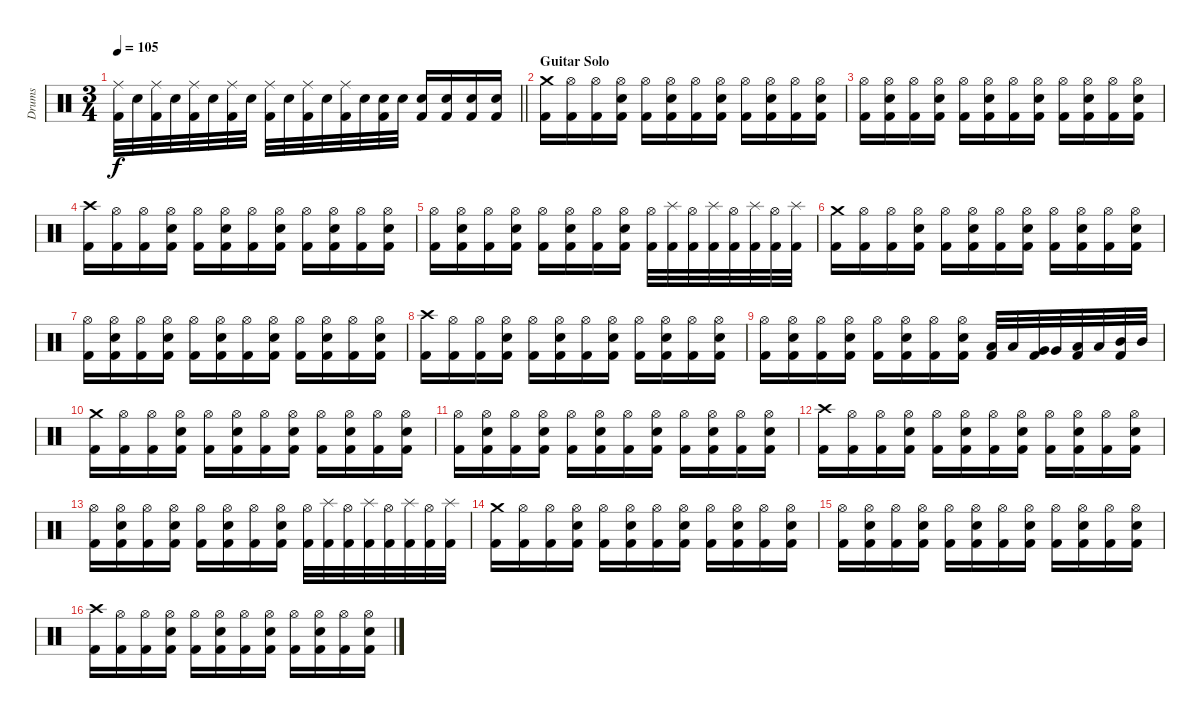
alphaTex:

\track ("Drums" "Drums") {instrument percussion}
\staff {score}
\articulation defaults
\ts (3 4)
\tempo 105
\clef neutral
\barLineRight lightlight
\ks c
("Kick (hit) 2" "Ride (middle)").32{dy f} "Electric Snare (hit)".32 ("Kick (hit) 2" "Ride (middle)").32 "Electric Snare (hit)".32 ("Kick (hit) 2" "Ride (middle)").32 "Electric Snare (hit)".32 ("Kick (hit) 2" "Ride (middle)").32 "Electric Snare (hit)".32 ("Kick (hit) 2" "Ride (middle)").32 "Electric Snare (hit)".32 ("Kick (hit) 2" "Ride (middle)").32 "Electric Snare (hit)".32 ("Kick (hit) 2" "Ride (middle)").32 "Electric Snare (hit)".32 ("Kick (hit) 2" "Electric Snare (hit)").32 "Electric Snare (hit)".32 ("Kick (hit) 2" "Electric Snare (hit)").16 ("Kick (hit) 2" "Electric Snare (hit)").16 ("Kick (hit) 2" "Electric Snare (hit)").16 ("Kick (hit) 2" "Electric Snare (hit)").16 |
\section ("" "Guitar Solo")
("Kick (hit) 2" "Crash medium (hit)").16 ("Kick (hit) 2" "Hi-Hat (open)").16 ("Kick (hit) 2" "Hi-Hat (open)").16 ("Kick (hit) 2" "Electric Snare (hit)" "Hi-Hat (open)").16 ("Kick (hit) 2" "Hi-Hat (open)").16 ("Kick (hit) 2" "Electric Snare (hit)" "Hi-Hat (open)").16 ("Kick (hit) 2" "Hi-Hat (open)").16 ("Kick (hit) 2" "Electric Snare (hit)" "Hi-Hat (open)").16 ("Kick (hit) 2" "Hi-Hat (open)").16 ("Kick (hit) 2" "Electric Snare (hit)" "Hi-Hat (open)").16 ("Kick (hit) 2" "Hi-Hat (open)").16 ("Kick (hit) 2" "Electric Snare (hit)" "Hi-Hat (open)").16 |
("Kick (hit) 2" "Hi-Hat (open)").16 ("Kick (hit) 2" "Electric Snare (hit)" "Hi-Hat (open)").16 ("Kick (hit) 2" "Hi-Hat (open)").16 ("Kick (hit) 2" "Electric Snare (hit)" "Hi-Hat (open)").16 ("Kick (hit) 2" "Hi-Hat (open)").16 ("Kick (hit) 2" "Electric Snare (hit)" "Hi-Hat (open)").16 ("Kick (hit) 2" "Hi-Hat (open)").16 ("Kick (hit) 2" "Electric Snare (hit)" "Hi-Hat (open)").16 ("Kick (hit) 2" "Hi-Hat (open)").16 ("Kick (hit) 2" "Electric Snare (hit)" "Hi-Hat (open)").16 ("Kick (hit) 2" "Hi-Hat (open)").16 ("Kick (hit) 2" "Electric Snare (hit)" "Hi-Hat (open)").16 |
("Kick (hit) 2" "Crash high (hit)").16 ("Kick (hit) 2" "Hi-Hat (open)").16 ("Kick (hit) 2" "Hi-Hat (open)").16 ("Kick (hit) 2" "Electric Snare (hit)" "Hi-Hat (open)").16 ("Kick (hit) 2" "Hi-Hat (open)").16 ("Kick (hit) 2" "Electric Snare (hit)" "Hi-Hat (open)").16 ("Kick (hit) 2" "Hi-Hat (open)").16 ("Kick (hit) 2" "Electric Snare (hit)" "Hi-Hat (open)").16 ("Kick (hit) 2" "Hi-Hat (open)").16 ("Kick (hit) 2" "Electric Snare (hit)" "Hi-Hat (open)").16 ("Kick (hit) 2" "Hi-Hat (open)").16 ("Kick (hit) 2" "Electric Snare (hit)" "Hi-Hat (open)").16 |
("Kick (hit) 2" "Hi-Hat (open)").16 ("Kick (hit) 2" "Electric Snare (hit)" "Hi-Hat (open)").16 ("Kick (hit) 2" "Hi-Hat (open)").16 ("Kick (hit) 2" "Electric Snare (hit)" "Hi-Hat (open)").16 ("Kick (hit) 2" "Hi-Hat (open)").16 ("Kick (hit) 2" "Electric Snare (hit)" "Hi-Hat (open)").16 ("Kick (hit) 2" "Hi-Hat (open)").16 ("Kick (hit) 2" "Electric Snare (hit)" "Hi-Hat (open)").16 ("Kick (hit) 2" "Hi-Hat (open)").32 ("Kick (hit) 2" "Splash (hit)").32 ("Kick (hit) 2" "Hi-Hat (open)").32 ("Kick (hit) 2" "Splash (hit)").32 ("Kick (hit) 2" "Hi-Hat (open)").32 ("Kick (hit) 2" "Splash (hit)").32 ("Kick (hit) 2" "Hi-Hat (open)").32 ("Kick (hit) 2" "Splash (hit)").32 |
("Kick (hit) 2" "Crash medium (hit)").16 ("Kick (hit) 2" "Hi-Hat (open)").16 ("Kick (hit) 2" "Hi-Hat (open)").16 ("Kick (hit) 2" "Electric Snare (hit)" "Hi-Hat (open)").16 ("Kick (hit) 2" "Hi-Hat (open)").16 ("Kick (hit) 2" "Electric Snare (hit)" "Hi-Hat (open)").16 ("Kick (hit) 2" "Hi-Hat (open)").16 ("Kick (hit) 2" "Electric Snare (hit)" "Hi-Hat (open)").16 ("Kick (hit) 2" "Hi-Hat (open)").16 ("Kick (hit) 2" "Electric Snare (hit)" "Hi-Hat (open)").16 ("Kick (hit) 2" "Hi-Hat (open)").16 ("Kick (hit) 2" "Electric Snare (hit)" "Hi-Hat (open)").16 |
("Kick (hit) 2" "Hi-Hat (open)").16 ("Kick (hit) 2" "Electric Snare (hit)" "Hi-Hat (open)").16 ("Kick (hit) 2" "Hi-Hat (open)").16 ("Kick (hit) 2" "Electric Snare (hit)" "Hi-Hat (open)").16 ("Kick (hit) 2" "Hi-Hat (open)").16 ("Kick (hit) 2" "Electric Snare (hit)" "Hi-Hat (open)").16 ("Kick (hit) 2" "Hi-Hat (open)").16 ("Kick (hit) 2" "Electric Snare (hit)" "Hi-Hat (open)").16 ("Kick (hit) 2" "Hi-Hat (open)").16 ("Kick (hit) 2" "Electric Snare (hit)" "Hi-Hat (open)").16 ("Kick (hit) 2" "Hi-Hat (open)").16 ("Kick (hit) 2" "Electric Snare (hit)" "Hi-Hat (open)").16 |
("Kick (hit) 2" "Crash high (hit)").16 ("Kick (hit) 2" "Hi-Hat (open)").16 ("Kick (hit) 2" "Hi-Hat (open)").16 ("Kick (hit) 2" "Electric Snare (hit)" "Hi-Hat (open)").16 ("Kick (hit) 2" "Hi-Hat (open)").16 ("Kick (hit) 2" "Electric Snare (hit)" "Hi-Hat (open)").16 ("Kick (hit) 2" "Hi-Hat (open)").16 ("Kick (hit) 2" "Electric Snare (hit)" "Hi-Hat (open)").16 ("Kick (hit) 2" "Hi-Hat (open)").16 ("Kick (hit) 2" "Electric Snare (hit)" "Hi-Hat (open)").16 ("Kick (hit) 2" "Hi-Hat (open)").16 ("Kick (hit) 2" "Electric Snare (hit)" "Hi-Hat (open)").16 |
("Kick (hit) 2" "Hi-Hat (open)").16 ("Kick (hit) 2" "Electric Snare (hit)" "Hi-Hat (open)").16 ("Kick (hit) 2" "Hi-Hat (open)").16 ("Kick (hit) 2" "Electric Snare (hit)" "Hi-Hat (open)").16 ("Kick (hit) 2" "Hi-Hat (open)").16 ("Kick (hit) 2" "Electric Snare (hit)" "Hi-Hat (open)").16 ("Kick (hit) 2" "Hi-Hat (open)").16 ("Kick (hit) 2" "Electric Snare (hit)" "Hi-Hat (open)").16 ("Kick (hit) 2" "Low Tom (hit)").32 "Low Tom (hit)".32 ("Kick (hit) 2" "Very Low Tom (hit)").32 "Very Low Tom (hit)".32 ("Kick (hit) 2" "Low Tom (hit)").32 "Low Tom (hit)".32 ("Kick (hit) 2" "Mid Tom (hit)").32 "Mid Tom (hit)".32 |
("Kick (hit) 2" "Crash medium (hit)").16 ("Kick (hit) 2" "Hi-Hat (open)").16 ("Kick (hit) 2" "Hi-Hat (open)").16 ("Kick (hit) 2" "Electric Snare (hit)" "Hi-Hat (open)").16 ("Kick (hit) 2" "Hi-Hat (open)").16 ("Kick (hit) 2" "Electric Snare (hit)" "Hi-Hat (open)").16 ("Kick (hit) 2" "Hi-Hat (open)").16 ("Kick (hit) 2" "Electric Snare (hit)" "Hi-Hat (open)").16 ("Kick (hit) 2" "Hi-Hat (open)").16 ("Kick (hit) 2" "Electric Snare (hit)" "Hi-Hat (open)").16 ("Kick (hit) 2" "Hi-Hat (open)").16 ("Kick (hit) 2" "Electric Snare (hit)" "Hi-Hat (open)").16 |
("Kick (hit) 2" "Hi-Hat (open)").16 ("Kick (hit) 2" "Electric Snare (hit)" "Hi-Hat (open)").16 ("Kick (hit) 2" "Hi-Hat (open)").16 ("Kick (hit) 2" "Electric Snare (hit)" "Hi-Hat (open)").16 ("Kick (hit) 2" "Hi-Hat (open)").16 ("Kick (hit) 2" "Electric Snare (hit)" "Hi-Hat (open)").16 ("Kick (hit) 2" "Hi-Hat (open)").16 ("Kick (hit) 2" "Electric Snare (hit)" "Hi-Hat (open)").16 ("Kick (hit) 2" "Hi-Hat (open)").16 ("Kick (hit) 2" "Electric Snare (hit)" "Hi-Hat (open)").16 ("Kick (hit) 2" "Hi-Hat (open)").16 ("Kick (hit) 2" "Electric Snare (hit)" "Hi-Hat (open)").16 |
("Kick (hit) 2" "Crash high (hit)").16 ("Kick (hit) 2" "Hi-Hat (open)").16 ("Kick (hit) 2" "Hi-Hat (open)").16 ("Kick (hit) 2" "Electric Snare (hit)" "Hi-Hat (open)").16 ("Kick (hit) 2" "Hi-Hat (open)").16 ("Kick (hit) 2" "Electric Snare (hit)" "Hi-Hat (open)").16 ("Kick (hit) 2" "Hi-Hat (open)").16 ("Kick (hit) 2" "Electric Snare (hit)" "Hi-Hat (open)").16 ("Kick (hit) 2" "Hi-Hat (open)").16 ("Kick (hit) 2" "Electric Snare (hit)" "Hi-Hat (open)").16 ("Kick (hit) 2" "Hi-Hat (open)").16 ("Kick (hit) 2" "Electric Snare (hit)" "Hi-Hat (open)").16 |
("Kick (hit) 2" "Hi-Hat (open)").16 ("Kick (hit) 2" "Electric Snare (hit)" "Hi-Hat (open)").16 ("Kick (hit) 2" "Hi-Hat (open)").16 ("Kick (hit) 2" "Electric Snare (hit)" "Hi-Hat (open)").16 ("Kick (hit) 2" "Hi-Hat (open)").16 ("Kick (hit) 2" "Electric Snare (hit)" "Hi-Hat (open)").16 ("Kick (hit) 2" "Hi-Hat (open)").16 ("Kick (hit) 2" "Electric Snare (hit)" "Hi-Hat (open)").16 ("Kick (hit) 2" "Hi-Hat (open)").32 ("Kick (hit) 2" "Splash (hit)").32 ("Kick (hit) 2" "Hi-Hat (open)").32 ("Kick (hit) 2" "Splash (hit)").32 ("Kick (hit) 2" "Hi-Hat (open)").32 ("Kick (hit) 2" "Splash (hit)").32 ("Kick (hit) 2" "Hi-Hat (open)").32 ("Kick (hit) 2" "Splash (hit)").32 |
("Kick (hit) 2" "Crash medium (hit)").16 ("Kick (hit) 2" "Hi-Hat (open)").16 ("Kick (hit) 2" "Hi-Hat (open)").16 ("Kick (hit) 2" "Electric Snare (hit)" "Hi-Hat (open)").16 ("Kick (hit) 2" "Hi-Hat (open)").16 ("Kick (hit) 2" "Electric Snare (hit)" "Hi-Hat (open)").16 ("Kick (hit) 2" "Hi-Hat (open)").16 ("Kick (hit) 2" "Electric Snare (hit)" "Hi-Hat (open)").16 ("Kick (hit) 2" "Hi-Hat (open)").16 ("Kick (hit) 2" "Electric Snare (hit)" "Hi-Hat (open)").16 ("Kick (hit) 2" "Hi-Hat (open)").16 ("Kick (hit) 2" "Electric Snare (hit)" "Hi-Hat (open)").16 |
("Kick (hit) 2" "Hi-Hat (open)").16 ("Kick (hit) 2" "Electric Snare (hit)" "Hi-Hat (open)").16 ("Kick (hit) 2" "Hi-Hat (open)").16 ("Kick (hit) 2" "Electric Snare (hit)" "Hi-Hat (open)").16 ("Kick (hit) 2" "Hi-Hat (open)").16 ("Kick (hit) 2" "Electric Snare (hit)" "Hi-Hat (open)").16 ("Kick (hit) 2" "Hi-Hat (open)").16 ("Kick (hit) 2" "Electric Snare (hit)" "Hi-Hat (open)").16 ("Kick (hit) 2" "Hi-Hat (open)").16 ("Kick (hit) 2" "Electric Snare (hit)" "Hi-Hat (open)").16 ("Kick (hit) 2" "Hi-Hat (open)").16 ("Kick (hit) 2" "Electric Snare (hit)" "Hi-Hat (open)").16 |
("Kick (hit) 2" "Crash high (hit)").16 ("Kick (hit) 2" "Hi-Hat (open)").16 ("Kick (hit) 2" "Hi-Hat (open)").16 ("Kick (hit) 2" "Electric Snare (hit)" "Hi-Hat (open)").16 ("Kick (hit) 2" "Hi-Hat (open)").16 ("Kick (hit) 2" "Electric Snare (hit)" "Hi-Hat (open)").16 ("Kick (hit) 2" "Hi-Hat (open)").16 ("Kick (hit) 2" "Electric Snare (hit)" "Hi-Hat (open)").16 ("Kick (hit) 2" "Hi-Hat (open)").16 ("Kick (hit) 2" "Electric Snare (hit)" "Hi-Hat (open)").16 ("Kick (hit) 2" "Hi-Hat (open)").16 ("Kick (hit) 2" "Electric Snare (hit)" "Hi-Hat (open)").16
